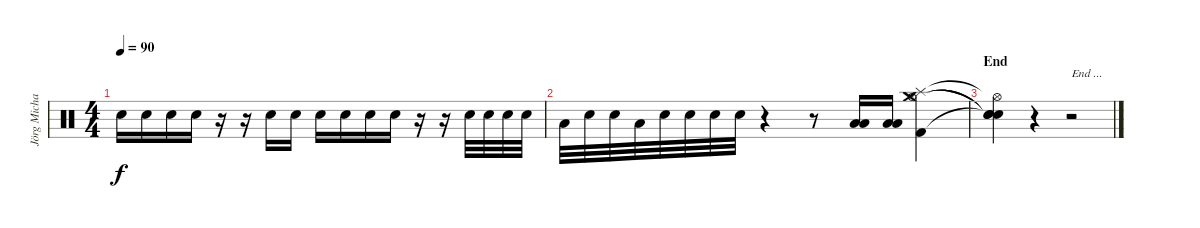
\track ("Jörg Michael" "Jörg Micha") {instrument percussion}
\staff {score}
\articulation defaults
\ts (4 4)
\tempo 90
\clef neutral
\ks c "Electric Snare (hit)".16{dy f} "Electric Snare (hit)".16 "Electric Snare (hit)".16 "Electric Snare (hit)".16
r.16 r.16 "Electric Snare (hit)".16 "Electric Snare (hit)".16 "Electric Snare (hit)".16 "Electric Snare (hit)".16 "Electric Snare (hit)".16 "Electric Snare (hit)".16 r.16 r.16 "Electric Snare (hit)".32 "Electric Snare (hit)".32 "Electric Snare (hit)".32 "Electric Snare (hit)".32 |
"Low Tom (hit)".32 "Electric Snare (hit)".32 "Electric Snare (hit)".32 "Low Floor Tom (hit)".32 "Electric Snare (hit)".32 "Electric Snare (hit)".32 "Electric Snare (hit)".32 "Electric Snare (hit)".32 r.4 r.8 ("Low Tom (hit)" "Low Floor Tom (hit)").16 ("Low Tom (hit)" "Low Floor Tom (hit)").16 ("Crash medium (hit)" "Splash (hit)" "Hi-Hat (open)" "Kick (hit) 2").4 |
\section ("" "End")
("Snare (hit)"{t} "Hi-Hat (open)"{t} "Snare (hit)"{t} "Snare (hit)"{t}).4 r.4 r.2{txt "End ..."}
